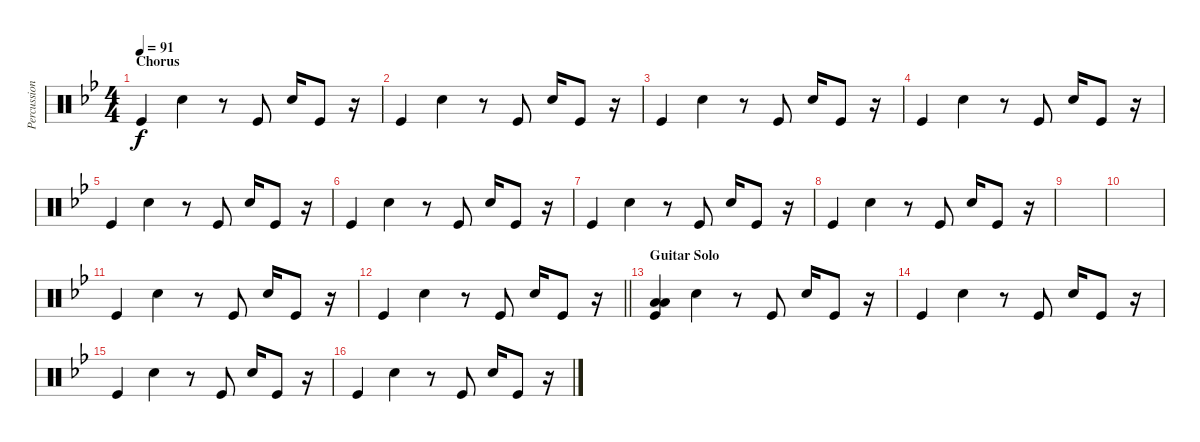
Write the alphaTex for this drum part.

\track ("Percussion" "Percussion") {instrument percussion}
\staff {score}
\articulation defaults
\ts (4 4)
\section ("" "Chorus")
\tempo 91
\clef neutral
\ks bb "Kick (hit)".4{dy f} "Electric Snare (hit)".4
r.8 "Kick (hit)".8 "Electric Snare (hit)".16 "Kick (hit)".8 r.16 |
"Kick (hit)".4 "Electric Snare (hit)".4 r.8 "Kick (hit)".8 "Electric Snare (hit)".16 "Kick (hit)".8 r.16 |
"Kick (hit)".4 "Electric Snare (hit)".4 r.8 "Kick (hit)".8 "Electric Snare (hit)".16 "Kick (hit)".8 r.16 |
"Kick (hit)".4 "Electric Snare (hit)".4 r.8 "Kick (hit)".8 "Electric Snare (hit)".16 "Kick (hit)".8 r.16 |
"Kick (hit)".4 "Electric Snare (hit)".4 r.8 "Kick (hit)".8 "Electric Snare (hit)".16 "Kick (hit)".8 r.16 |
"Kick (hit)".4 "Electric Snare (hit)".4 r.8 "Kick (hit)".8 "Electric Snare (hit)".16 "Kick (hit)".8 r.16 |
"Kick (hit)".4 "Electric Snare (hit)".4 r.8 "Kick (hit)".8 "Electric Snare (hit)".16 "Kick (hit)".8 r.16 |
"Kick (hit)".4 "Electric Snare (hit)".4 r.8 "Kick (hit)".8 "Electric Snare (hit)".16 "Kick (hit)".8 r.16 |
|
|
"Kick (hit)".4 "Electric Snare (hit)".4 r.8 "Kick (hit)".8 "Electric Snare (hit)".16 "Kick (hit)".8 r.16 |
\barLineRight lightlight "Kick (hit)".4 "Electric Snare (hit)".4
r.8 "Kick (hit)".8 "Electric Snare (hit)".16 "Kick (hit)".8 r.16 |
\section ("" "Guitar Solo")
("Low Tom (hit)" "Kick (hit)" "Low Tom (hit)").4 "Electric Snare (hit)".4 r.8 "Kick (hit)".8 "Electric Snare (hit)".16 "Kick (hit)".8 r.16 |
"Kick (hit)".4 "Electric Snare (hit)".4 r.8 "Kick (hit)".8 "Electric Snare (hit)".16 "Kick (hit)".8 r.16 |
"Kick (hit)".4 "Electric Snare (hit)".4 r.8 "Kick (hit)".8 "Electric Snare (hit)".16 "Kick (hit)".8 r.16 |
"Kick (hit)".4 "Electric Snare (hit)".4 r.8 "Kick (hit)".8 "Electric Snare (hit)".16 "Kick (hit)".8 r.16
